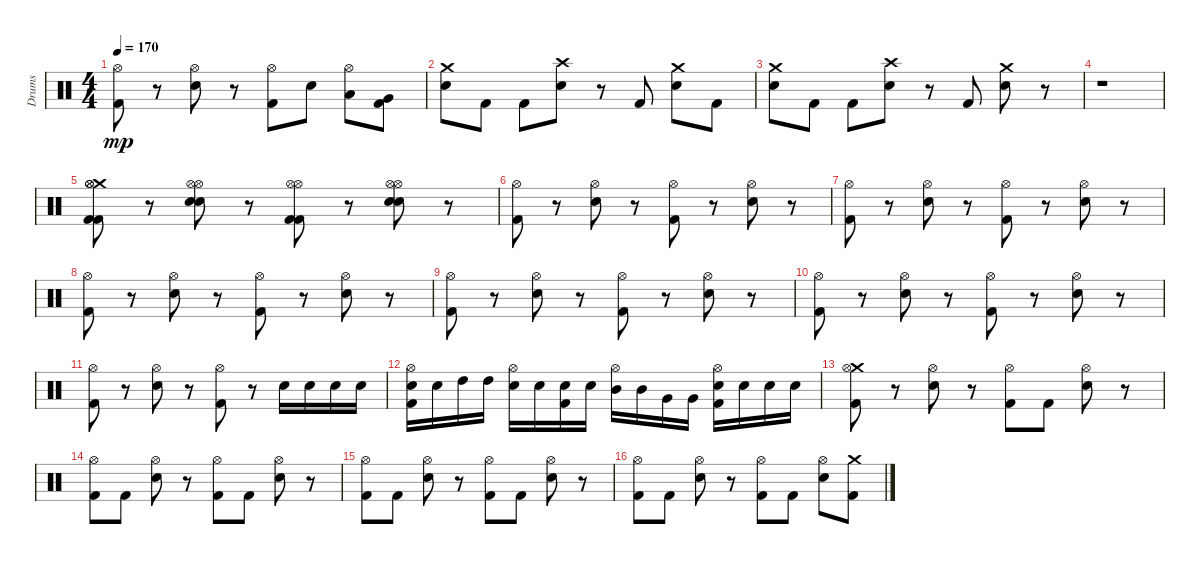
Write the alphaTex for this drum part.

\track ("Drums" "Drums") {instrument percussion}
\staff {score}
\articulation defaults
\ts (4 4)
\tempo 170
\clef neutral
\ks c
("Hi-Hat (open)" "Kick (hit) 2").8{dy mp} r.8 ("Hi-Hat (open)" "Electric Snare (hit)").8 r.8 ("Hi-Hat (open)" "Kick (hit) 2").8 "Electric Snare (hit)".8 ("Hi-Hat (open)" "Low Tom (hit)").8 ("Very Low Tom (hit)" "Kick (hit) 2").8 |
("Crash medium (hit)" "Electric Snare (hit)").8 "Kick (hit) 2".8 "Kick (hit) 2".8 ("Crash high (hit)" "Electric Snare (hit)").8 r.8 "Kick (hit) 2".8 ("Electric Snare (hit)" "Crash medium (hit)").8 "Kick (hit) 2".8 |
("Crash medium (hit)" "Electric Snare (hit)").8 "Kick (hit) 2".8 "Kick (hit) 2".8 ("Electric Snare (hit)" "Crash high (hit)").8 r.8 "Kick (hit) 2".8 ("Crash medium (hit)" "Electric Snare (hit)").8 r.8 |
r.1 |
("Crash medium (hit)" "Hi-Hat (open)" "Hi-Hat (open)" "Kick (hit) 2" "Kick (hit) 2").8 r.8 ("Electric Snare (hit)" "Hi-Hat (open)" "Electric Snare (hit)" "Hi-Hat (open)").8 r.8 ("Hi-Hat (open)" "Kick (hit) 2" "Hi-Hat (open)" "Kick (hit) 2").8 r.8 ("Electric Snare (hit)" "Hi-Hat (open)" "Electric Snare (hit)" "Hi-Hat (open)").8 r.8 |
("Kick (hit) 2" "Hi-Hat (open)").8 r.8 ("Hi-Hat (open)" "Electric Snare (hit)").8 r.8 ("Kick (hit) 2" "Hi-Hat (open)").8 r.8 ("Electric Snare (hit)" "Hi-Hat (open)").8 r.8 |
("Hi-Hat (open)" "Kick (hit) 2").8 r.8 ("Hi-Hat (open)" "Electric Snare (hit)").8 r.8 ("Hi-Hat (open)" "Kick (hit) 2").8 r.8 ("Hi-Hat (open)" "Electric Snare (hit)").8 r.8 |
("Hi-Hat (open)" "Kick (hit) 2").8 r.8 ("Hi-Hat (open)" "Electric Snare (hit)").8 r.8 ("Kick (hit) 2" "Hi-Hat (open)").8 r.8 ("Electric Snare (hit)" "Hi-Hat (open)").8 r.8 |
("Hi-Hat (open)" "Kick (hit) 2").8 r.8 ("Electric Snare (hit)" "Hi-Hat (open)").8 r.8 ("Hi-Hat (open)" "Kick (hit) 2").8 r.8 ("Electric Snare (hit)" "Hi-Hat (open)").8 r.8 |
("Kick (hit) 2" "Hi-Hat (open)").8 r.8 ("Hi-Hat (open)" "Electric Snare (hit)").8 r.8 ("Kick (hit) 2" "Hi-Hat (open)").8 r.8 ("Electric Snare (hit)" "Hi-Hat (open)").8 r.8 |
("Kick (hit) 2" "Hi-Hat (open)").8 r.8 ("Hi-Hat (open)" "Electric Snare (hit)").8 r.8 ("Kick (hit) 2" "Hi-Hat (open)").8 r.8 "Electric Snare (hit)".16 "Electric Snare (hit)".16 "Electric Snare (hit)".16 "Electric Snare (hit)".16 |
("Hi-Hat (open)" "Kick (hit) 2" "Electric Snare (hit)").16 "Electric Snare (hit)".16 "High Tom (hit)".16 "High Tom (hit)".16 ("Hi-Hat (open)" "Electric Snare (hit)").16 "Electric Snare (hit)".16 ("Electric Snare (hit)" "Kick (hit) 2").16 "Electric Snare (hit)".16 ("Hi-Hat (open)" "Mid Tom (hit)").16 "Mid Tom (hit)".16 "Very Low Tom (hit)".16 "Very Low Tom (hit)".16 ("Hi-Hat (open)" "Kick (hit) 2" "Electric Snare (hit)").16 "Electric Snare (hit)".16 "Electric Snare (hit)".16 "Electric Snare (hit)".16 |
("Crash medium (hit)" "Kick (hit) 2" "Hi-Hat (open)").8 r.8 ("Hi-Hat (open)" "Electric Snare (hit)").8 r.8 ("Hi-Hat (open)" "Kick (hit) 2").8 "Kick (hit) 2".8 ("Electric Snare (hit)" "Hi-Hat (open)").8 r.8 |
("Hi-Hat (open)" "Kick (hit) 2").8 "Kick (hit) 2".8 ("Hi-Hat (open)" "Electric Snare (hit)").8 r.8 ("Hi-Hat (open)" "Kick (hit) 2").8 "Kick (hit) 2".8 ("Electric Snare (hit)" "Hi-Hat (open)").8 r.8 |
("Kick (hit) 2" "Hi-Hat (open)").8 "Kick (hit) 2".8 ("Hi-Hat (open)" "Electric Snare (hit)").8 r.8 ("Hi-Hat (open)" "Kick (hit) 2").8 "Kick (hit) 2".8 ("Hi-Hat (open)" "Electric Snare (hit)").8 r.8 |
("Hi-Hat (open)" "Kick (hit) 2").8 "Kick (hit) 2".8 ("Electric Snare (hit)" "Hi-Hat (open)").8 r.8 ("Kick (hit) 2" "Hi-Hat (open)").8 "Kick (hit) 2".8 ("Hi-Hat (open)" "Electric Snare (hit)").8 ("Kick (hit) 2" "Crash medium (hit)").8
